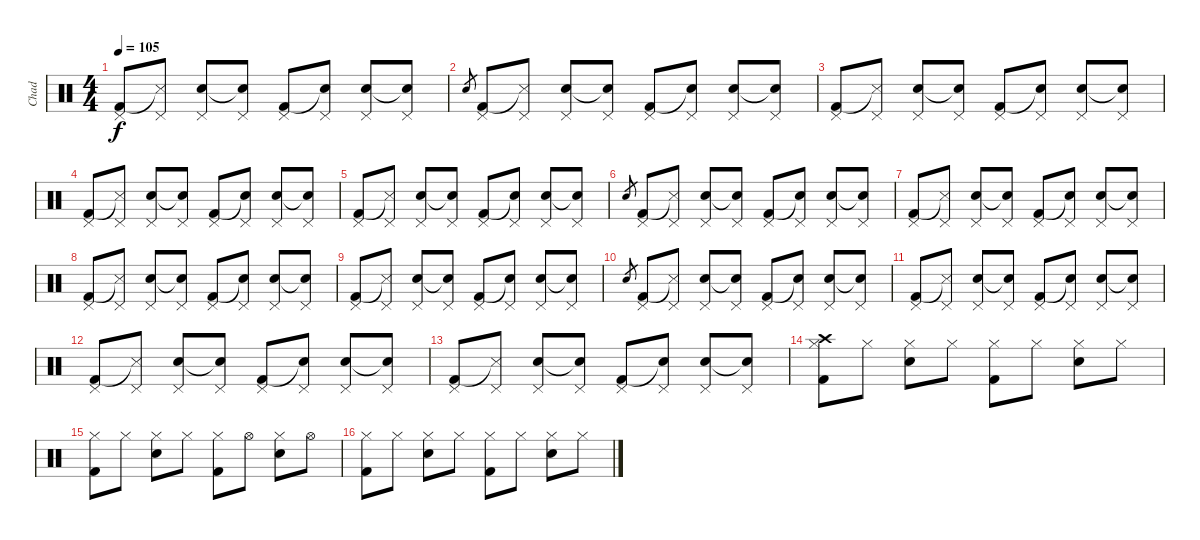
\track ("Chad" "Chad") {instrument percussion}
\staff {score}
\articulation defaults
\ts (4 4)
\tempo 105
\clef neutral
\ks c
("Pedal Hi-Hat (hit)" "Kick (hit) 2").8{dy f} ("Pedal Hi-Hat (hit)" "Snare (side stick) 3"{t}).8 ("Pedal Hi-Hat (hit)" "Electric Snare (hit)").8 ("Pedal Hi-Hat (hit)" "Snare (hit)"{t}).8 ("Pedal Hi-Hat (hit)" "Kick (hit) 2").8 ("Pedal Hi-Hat (hit)" "Snare (hit)"{t}).8 ("Pedal Hi-Hat (hit)" "Electric Snare (hit)").8 ("Pedal Hi-Hat (hit)" "Snare (hit)"{t}).8 |
"Electric Snare (hit)".8{gr} ("Pedal Hi-Hat (hit)" "Kick (hit) 2").8 ("Pedal Hi-Hat (hit)" "Snare (side stick) 3"{t}).8 ("Pedal Hi-Hat (hit)" "Electric Snare (hit)").8 ("Pedal Hi-Hat (hit)" "Snare (hit)"{t}).8 ("Pedal Hi-Hat (hit)" "Kick (hit) 2").8 ("Pedal Hi-Hat (hit)" "Snare (hit)"{t}).8 ("Pedal Hi-Hat (hit)" "Electric Snare (hit)").8 ("Pedal Hi-Hat (hit)" "Snare (hit)"{t}).8 |
("Pedal Hi-Hat (hit)" "Kick (hit) 2").8 ("Pedal Hi-Hat (hit)" "Snare (side stick) 3"{t}).8 ("Pedal Hi-Hat (hit)" "Electric Snare (hit)").8 ("Pedal Hi-Hat (hit)" "Snare (hit)"{t}).8 ("Pedal Hi-Hat (hit)" "Kick (hit) 2").8 ("Pedal Hi-Hat (hit)" "Snare (hit)"{t}).8 ("Pedal Hi-Hat (hit)" "Electric Snare (hit)").8 ("Pedal Hi-Hat (hit)" "Snare (hit)"{t}).8 |
("Pedal Hi-Hat (hit)" "Kick (hit) 2").8 ("Pedal Hi-Hat (hit)" "Snare (side stick) 3"{t}).8 ("Pedal Hi-Hat (hit)" "Electric Snare (hit)").8 ("Pedal Hi-Hat (hit)" "Snare (hit)"{t}).8 ("Pedal Hi-Hat (hit)" "Kick (hit) 2").8 ("Pedal Hi-Hat (hit)" "Snare (hit)"{t}).8 ("Pedal Hi-Hat (hit)" "Electric Snare (hit)").8 ("Pedal Hi-Hat (hit)" "Snare (hit)"{t}).8 |
("Pedal Hi-Hat (hit)" "Kick (hit) 2").8 ("Pedal Hi-Hat (hit)" "Snare (side stick) 3"{t}).8 ("Pedal Hi-Hat (hit)" "Electric Snare (hit)").8 ("Pedal Hi-Hat (hit)" "Snare (hit)"{t}).8 ("Pedal Hi-Hat (hit)" "Kick (hit) 2").8 ("Pedal Hi-Hat (hit)" "Snare (hit)"{t}).8 ("Pedal Hi-Hat (hit)" "Electric Snare (hit)").8 ("Pedal Hi-Hat (hit)" "Snare (hit)"{t}).8 |
"Electric Snare (hit)".8{gr} ("Pedal Hi-Hat (hit)" "Kick (hit) 2").8 ("Pedal Hi-Hat (hit)" "Snare (side stick) 3"{t}).8 ("Pedal Hi-Hat (hit)" "Electric Snare (hit)").8 ("Pedal Hi-Hat (hit)" "Snare (hit)"{t}).8 ("Pedal Hi-Hat (hit)" "Kick (hit) 2").8 ("Pedal Hi-Hat (hit)" "Snare (hit)"{t}).8 ("Pedal Hi-Hat (hit)" "Electric Snare (hit)").8 ("Pedal Hi-Hat (hit)" "Snare (hit)"{t}).8 |
("Pedal Hi-Hat (hit)" "Kick (hit) 2").8 ("Pedal Hi-Hat (hit)" "Snare (side stick) 3"{t}).8 ("Pedal Hi-Hat (hit)" "Electric Snare (hit)").8 ("Pedal Hi-Hat (hit)" "Snare (hit)"{t}).8 ("Pedal Hi-Hat (hit)" "Kick (hit) 2").8 ("Pedal Hi-Hat (hit)" "Snare (hit)"{t}).8 ("Pedal Hi-Hat (hit)" "Electric Snare (hit)").8 ("Pedal Hi-Hat (hit)" "Snare (hit)"{t}).8 |
("Pedal Hi-Hat (hit)" "Kick (hit) 2").8 ("Pedal Hi-Hat (hit)" "Snare (side stick) 3"{t}).8 ("Pedal Hi-Hat (hit)" "Electric Snare (hit)").8 ("Pedal Hi-Hat (hit)" "Snare (hit)"{t}).8 ("Pedal Hi-Hat (hit)" "Kick (hit) 2").8 ("Pedal Hi-Hat (hit)" "Snare (hit)"{t}).8 ("Pedal Hi-Hat (hit)" "Electric Snare (hit)").8 ("Pedal Hi-Hat (hit)" "Snare (hit)"{t}).8 |
("Pedal Hi-Hat (hit)" "Kick (hit) 2").8 ("Pedal Hi-Hat (hit)" "Snare (side stick) 3"{t}).8 ("Pedal Hi-Hat (hit)" "Electric Snare (hit)").8 ("Pedal Hi-Hat (hit)" "Snare (hit)"{t}).8 ("Pedal Hi-Hat (hit)" "Kick (hit) 2").8 ("Pedal Hi-Hat (hit)" "Snare (hit)"{t}).8 ("Pedal Hi-Hat (hit)" "Electric Snare (hit)").8 ("Pedal Hi-Hat (hit)" "Snare (hit)"{t}).8 |
"Electric Snare (hit)".8{gr} ("Pedal Hi-Hat (hit)" "Kick (hit) 2").8 ("Pedal Hi-Hat (hit)" "Snare (side stick) 3"{t}).8 ("Pedal Hi-Hat (hit)" "Electric Snare (hit)").8 ("Pedal Hi-Hat (hit)" "Snare (hit)"{t}).8 ("Pedal Hi-Hat (hit)" "Kick (hit) 2").8 ("Pedal Hi-Hat (hit)" "Snare (hit)"{t}).8 ("Pedal Hi-Hat (hit)" "Electric Snare (hit)").8 ("Pedal Hi-Hat (hit)" "Snare (hit)"{t}).8 |
("Pedal Hi-Hat (hit)" "Kick (hit) 2").8 ("Pedal Hi-Hat (hit)" "Snare (side stick) 3"{t}).8 ("Pedal Hi-Hat (hit)" "Electric Snare (hit)").8 ("Pedal Hi-Hat (hit)" "Snare (hit)"{t}).8 ("Pedal Hi-Hat (hit)" "Kick (hit) 2").8 ("Pedal Hi-Hat (hit)" "Snare (hit)"{t}).8 ("Pedal Hi-Hat (hit)" "Electric Snare (hit)").8 ("Pedal Hi-Hat (hit)" "Snare (hit)"{t}).8 |
("Pedal Hi-Hat (hit)" "Kick (hit) 2").8 ("Pedal Hi-Hat (hit)" "Snare (side stick) 3"{t}).8 ("Pedal Hi-Hat (hit)" "Electric Snare (hit)").8 ("Pedal Hi-Hat (hit)" "Snare (hit)"{t}).8 ("Pedal Hi-Hat (hit)" "Kick (hit) 2").8 ("Pedal Hi-Hat (hit)" "Snare (hit)"{t}).8 ("Pedal Hi-Hat (hit)" "Electric Snare (hit)").8 ("Pedal Hi-Hat (hit)" "Snare (hit)"{t}).8 |
("Pedal Hi-Hat (hit)" "Kick (hit) 2").8 ("Pedal Hi-Hat (hit)" "Snare (side stick) 3"{t}).8 ("Pedal Hi-Hat (hit)" "Electric Snare (hit)").8 ("Pedal Hi-Hat (hit)" "Snare (hit)"{t}).8 ("Pedal Hi-Hat (hit)" "Kick (hit) 2").8 ("Pedal Hi-Hat (hit)" "Snare (hit)"{t}).8 ("Pedal Hi-Hat (hit)" "Electric Snare (hit)").8 ("Pedal Hi-Hat (hit)" "Snare (hit)"{t}).8 |
("Hi-Hat (closed)" "Kick (hit) 2" "Crash high (hit)").8 "Hi-Hat (closed)".8 ("Hi-Hat (closed)" "Electric Snare (hit)").8 "Hi-Hat (closed)".8 ("Hi-Hat (closed)" "Kick (hit) 2").8 "Hi-Hat (closed)".8 ("Hi-Hat (closed)" "Electric Snare (hit)").8 "Hi-Hat (closed)".8 |
("Hi-Hat (closed)" "Kick (hit) 2").8 "Hi-Hat (closed)".8 ("Hi-Hat (closed)" "Electric Snare (hit)").8 "Hi-Hat (closed)".8 ("Hi-Hat (closed)" "Kick (hit) 2").8 "Hi-Hat (open)".8 ("Hi-Hat (closed)" "Electric Snare (hit)").8 "Hi-Hat (open)".8 |
("Hi-Hat (closed)" "Kick (hit) 2").8 "Hi-Hat (closed)".8 ("Hi-Hat (closed)" "Electric Snare (hit)").8 "Hi-Hat (closed)".8 ("Hi-Hat (closed)" "Kick (hit) 2").8 "Hi-Hat (closed)".8 ("Hi-Hat (closed)" "Electric Snare (hit)").8 "Hi-Hat (closed)".8
